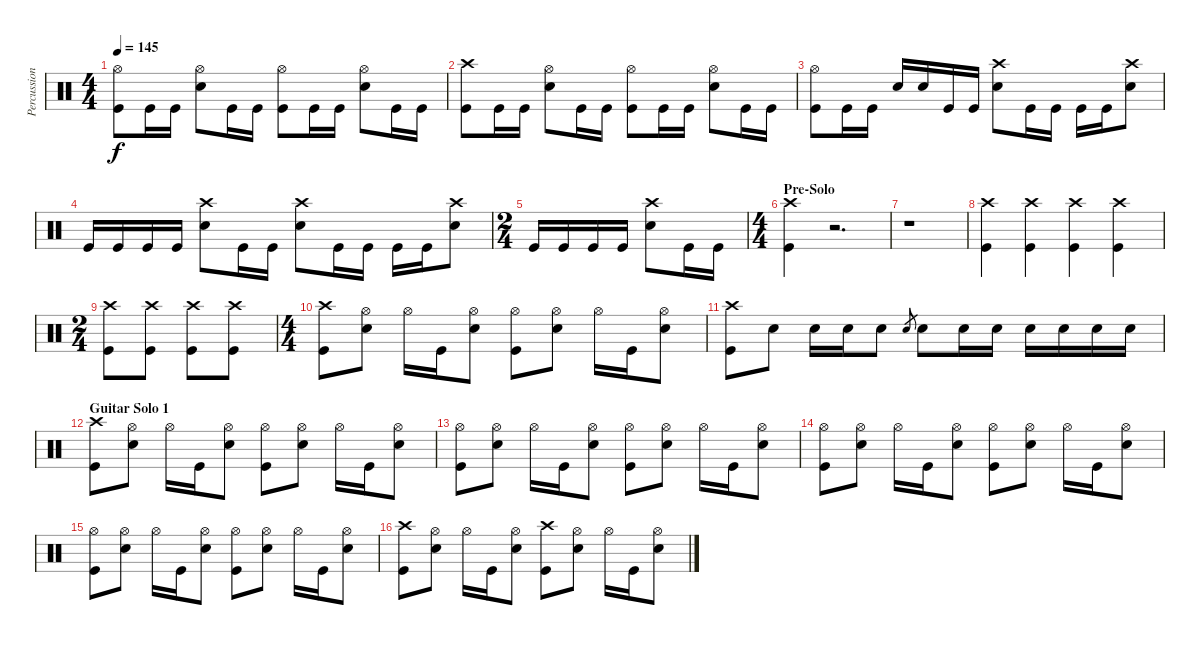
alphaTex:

\track ("Percussions" "Percussion") {instrument percussion}
\staff {score}
\articulation defaults
\ts (4 4)
\tempo 145
\clef neutral
\ks c
("Hi-Hat (open)" "Kick (hit)").8{dy f} "Kick (hit)".16 "Kick (hit)".16 ("Hi-Hat (open)" "Snare (hit) 2").8 "Kick (hit)".16 "Kick (hit)".16 ("Hi-Hat (open)" "Kick (hit)").8 "Kick (hit)".16 "Kick (hit)".16 ("Hi-Hat (open)" "Snare (hit) 2").8 "Kick (hit)".16 "Kick (hit)".16 |
("Crash high (hit)" "Kick (hit)").8 "Kick (hit)".16 "Kick (hit)".16 ("Hi-Hat (open)" "Snare (hit) 2").8 "Kick (hit)".16 "Kick (hit)".16 ("Hi-Hat (open)" "Kick (hit)").8 "Kick (hit)".16 "Kick (hit)".16 ("Hi-Hat (open)" "Snare (hit) 2").8 "Kick (hit)".16 "Kick (hit)".16 |
("Hi-Hat (open)" "Kick (hit)").8 "Kick (hit)".16 "Kick (hit)".16 "Snare (hit) 2".16 "Snare (hit) 2".16 "Kick (hit)".16 "Kick (hit)".16 ("Crash high (hit)" "Snare (hit) 2").8 "Kick (hit)".16 "Kick (hit)".16 "Kick (hit)".16 "Kick (hit)".16 ("Crash high (hit)" "Snare (hit) 2").8 |
"Kick (hit)".16 "Kick (hit)".16 "Kick (hit)".16 "Kick (hit)".16 ("Crash high (hit)" "Snare (hit) 2").8 "Kick (hit)".16 "Kick (hit)".16 ("Crash high (hit)" "Snare (hit) 2").8 "Kick (hit)".16 "Kick (hit)".16 "Kick (hit)".16 "Kick (hit)".16 ("Crash high (hit)" "Snare (hit) 2").8 |
\ts (2 4)
"Kick (hit)".16 "Kick (hit)".16 "Kick (hit)".16 "Kick (hit)".16 ("Crash high (hit)" "Snare (hit) 2").8 "Kick (hit)".16 "Kick (hit)".16 |
\ts (4 4)
\section ("" "Pre-Solo")
("Crash high (hit)" "Kick (hit)").4 r.2{d} |
r.1 |
("Crash high (hit)" "Kick (hit)").4 ("Crash high (hit)" "Kick (hit)").4 ("Crash high (hit)" "Kick (hit)").4 ("Crash high (hit)" "Kick (hit)").4 |
\ts (2 4)
("Crash high (hit)" "Kick (hit)").8 ("Crash high (hit)" "Kick (hit)").8 ("Crash high (hit)" "Kick (hit)").8 ("Crash high (hit)" "Kick (hit)").8 |
\ts (4 4)
("Crash high (hit)" "Kick (hit)").8 ("Hi-Hat (open)" "Snare (hit) 2").8 "Hi-Hat (open)".16 "Kick (hit)".16 ("Hi-Hat (open)" "Snare (hit) 2").8 ("Hi-Hat (open)" "Kick (hit)").8 ("Hi-Hat (open)" "Snare (hit) 2").8 "Hi-Hat (open)".16 "Kick (hit)".16 ("Hi-Hat (open)" "Snare (hit) 2").8 |
("Crash high (hit)" "Kick (hit)").8 "Snare (hit) 2".8 "Snare (hit) 2".16 "Snare (hit) 2".16 "Snare (hit) 2".8 "Snare (hit) 2".8{gr} "Snare (hit) 2".8 "Snare (hit) 2".16 "Snare (hit) 2".16 "Snare (hit) 2".16 "Snare (hit) 2".16 "Snare (hit) 2".16 "Snare (hit) 2".16 |
\section ("" "Guitar Solo 1")
("Crash high (hit)" "Kick (hit)").8 ("Hi-Hat (open)" "Snare (hit) 2").8 "Hi-Hat (open)".16 "Kick (hit)".16 ("Hi-Hat (open)" "Snare (hit) 2").8 ("Hi-Hat (open)" "Kick (hit)").8 ("Hi-Hat (open)" "Snare (hit) 2").8 "Hi-Hat (open)".16 "Kick (hit)".16 ("Hi-Hat (open)" "Snare (hit) 2").8 |
("Hi-Hat (open)" "Kick (hit)").8 ("Hi-Hat (open)" "Snare (hit) 2").8 "Hi-Hat (open)".16 "Kick (hit)".16 ("Hi-Hat (open)" "Snare (hit) 2").8 ("Hi-Hat (open)" "Kick (hit)").8 ("Hi-Hat (open)" "Snare (hit) 2").8 "Hi-Hat (open)".16 "Kick (hit)".16 ("Hi-Hat (open)" "Snare (hit) 2").8 |
("Hi-Hat (open)" "Kick (hit)").8 ("Hi-Hat (open)" "Snare (hit) 2").8 "Hi-Hat (open)".16 "Kick (hit)".16 ("Hi-Hat (open)" "Snare (hit) 2").8 ("Hi-Hat (open)" "Kick (hit)").8 ("Hi-Hat (open)" "Snare (hit) 2").8 "Hi-Hat (open)".16 "Kick (hit)".16 ("Hi-Hat (open)" "Snare (hit) 2").8 |
("Hi-Hat (open)" "Kick (hit)").8 ("Hi-Hat (open)" "Snare (hit) 2").8 "Hi-Hat (open)".16 "Kick (hit)".16 ("Hi-Hat (open)" "Snare (hit) 2").8 ("Hi-Hat (open)" "Kick (hit)").8 ("Hi-Hat (open)" "Snare (hit) 2").8 "Hi-Hat (open)".16 "Kick (hit)".16 ("Hi-Hat (open)" "Snare (hit) 2").8 |
("Crash high (hit)" "Kick (hit)").8 ("Hi-Hat (open)" "Snare (hit) 2").8 "Hi-Hat (open)".16 "Kick (hit)".16 ("Hi-Hat (open)" "Snare (hit) 2").8 ("Crash high (hit)" "Kick (hit)").8 ("Hi-Hat (open)" "Snare (hit) 2").8 "Hi-Hat (open)".16 "Kick (hit)".16 ("Hi-Hat (open)" "Snare (hit) 2").8
